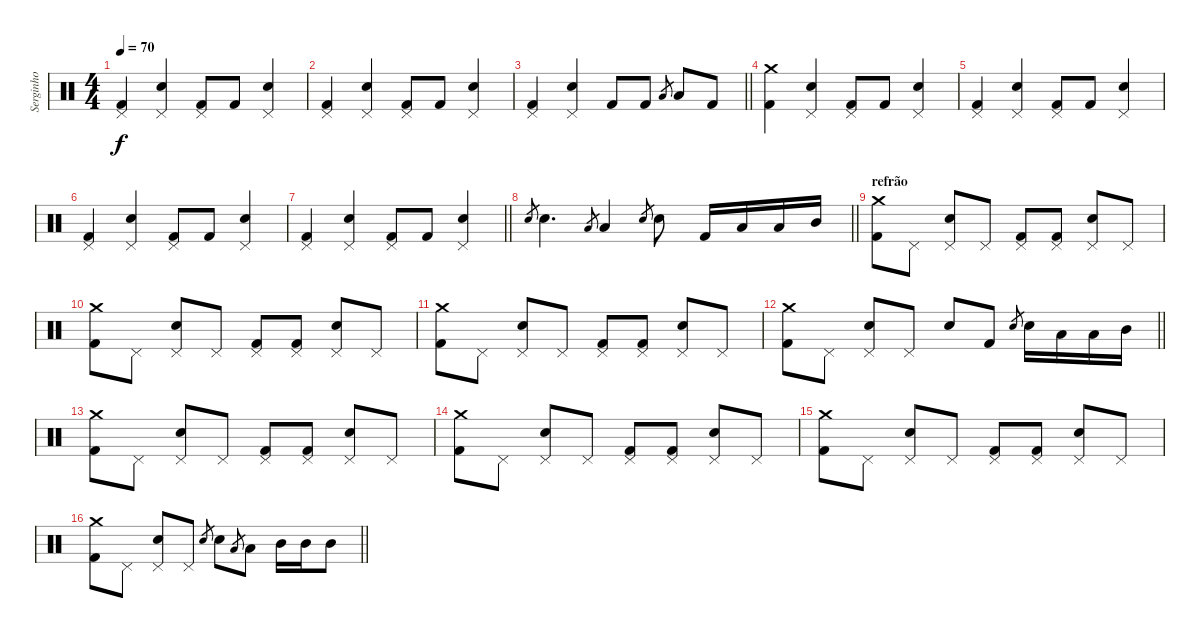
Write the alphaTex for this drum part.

\track ("Serginho" "Serginho") {instrument percussion}
\staff {score}
\articulation defaults
\ts (4 4)
\tempo 70
\clef neutral
\ks c
("Pedal Hi-Hat (hit)" "Kick (hit) 2").4{dy f} ("Pedal Hi-Hat (hit)" "Snare (hit) 2").4 ("Pedal Hi-Hat (hit)" "Kick (hit) 2").8 "Kick (hit) 2".8 ("Pedal Hi-Hat (hit)" "Snare (hit) 2").4 |
("Pedal Hi-Hat (hit)" "Kick (hit) 2").4 ("Pedal Hi-Hat (hit)" "Snare (hit) 2").4 ("Pedal Hi-Hat (hit)" "Kick (hit) 2").8 "Kick (hit) 2".8 ("Pedal Hi-Hat (hit)" "Snare (hit) 2").4 |
\barLineRight lightlight
("Pedal Hi-Hat (hit)" "Kick (hit) 2").4 ("Pedal Hi-Hat (hit)" "Snare (hit) 2").4 "Kick (hit) 2".8 "Kick (hit) 2".8 "Low Tom (hit)".8{gr} "Low Tom (hit)".8 "Kick (hit) 2".8 |
("Crash medium (hit)" "Kick (hit) 2").4 ("Pedal Hi-Hat (hit)" "Snare (hit) 2").4 ("Pedal Hi-Hat (hit)" "Kick (hit) 2").8 "Kick (hit) 2".8 ("Pedal Hi-Hat (hit)" "Snare (hit) 2").4 |
("Pedal Hi-Hat (hit)" "Kick (hit) 2").4 ("Pedal Hi-Hat (hit)" "Snare (hit) 2").4 ("Pedal Hi-Hat (hit)" "Kick (hit) 2").8 "Kick (hit) 2".8 ("Pedal Hi-Hat (hit)" "Snare (hit) 2").4 |
("Pedal Hi-Hat (hit)" "Kick (hit) 2").4 ("Pedal Hi-Hat (hit)" "Snare (hit) 2").4 ("Pedal Hi-Hat (hit)" "Kick (hit) 2").8 "Kick (hit) 2".8 ("Pedal Hi-Hat (hit)" "Snare (hit) 2").4 |
\barLineRight lightlight
("Pedal Hi-Hat (hit)" "Kick (hit) 2").4 ("Pedal Hi-Hat (hit)" "Snare (hit) 2").4 ("Pedal Hi-Hat (hit)" "Kick (hit) 2").8 "Kick (hit) 2".8 ("Pedal Hi-Hat (hit)" "Snare (hit) 2").4 |
\barLineRight lightlight "Snare (hit) 2".8{gr} "Snare (hit) 2".4{d} "Low Tom (hit)".8{gr} "Low Tom (hit)".4 "Snare (hit) 2".8{gr} "Snare (hit) 2".8 "Kick (hit) 2".16 "Low Tom (hit)".16 "Low Tom (hit)".16 "Mid Tom (hit)".16
|
\section ("" "refrão")
("Crash medium (hit)" "Kick (hit) 2").8 "Pedal Hi-Hat (hit)".8 ("Pedal Hi-Hat (hit)" "Snare (hit) 2").8 "Pedal Hi-Hat (hit)".8 ("Pedal Hi-Hat (hit)" "Kick (hit) 2").8 ("Pedal Hi-Hat (hit)" "Kick (hit) 2").8 ("Pedal Hi-Hat (hit)" "Snare (hit) 2").8 "Pedal Hi-Hat (hit)".8 |
("Crash medium (hit)" "Kick (hit) 2").8 "Pedal Hi-Hat (hit)".8 ("Pedal Hi-Hat (hit)" "Snare (hit) 2").8 "Pedal Hi-Hat (hit)".8 ("Pedal Hi-Hat (hit)" "Kick (hit) 2").8 ("Pedal Hi-Hat (hit)" "Kick (hit) 2").8 ("Pedal Hi-Hat (hit)" "Snare (hit) 2").8 "Pedal Hi-Hat (hit)".8 |
("Crash medium (hit)" "Kick (hit) 2").8 "Pedal Hi-Hat (hit)".8 ("Pedal Hi-Hat (hit)" "Snare (hit) 2").8 "Pedal Hi-Hat (hit)".8 ("Pedal Hi-Hat (hit)" "Kick (hit) 2").8 ("Pedal Hi-Hat (hit)" "Kick (hit) 2").8 ("Pedal Hi-Hat (hit)" "Snare (hit) 2").8 "Pedal Hi-Hat (hit)".8 |
\barLineRight lightlight
("Crash medium (hit)" "Kick (hit) 2").8 "Pedal Hi-Hat (hit)".8 ("Pedal Hi-Hat (hit)" "Snare (hit) 2").8 "Pedal Hi-Hat (hit)".8 "Snare (hit) 2".8 "Kick (hit) 2".8 "Snare (hit) 2".8{gr} "Snare (hit) 2".16 "Low Tom (hit)".16 "Low Tom (hit)".16 "Mid Tom (hit)".16 |
("Crash medium (hit)" "Kick (hit) 2").8 "Pedal Hi-Hat (hit)".8 ("Pedal Hi-Hat (hit)" "Snare (hit) 2").8 "Pedal Hi-Hat (hit)".8 ("Pedal Hi-Hat (hit)" "Kick (hit) 2").8 ("Pedal Hi-Hat (hit)" "Kick (hit) 2").8 ("Pedal Hi-Hat (hit)" "Snare (hit) 2").8 "Pedal Hi-Hat (hit)".8 |
("Crash medium (hit)" "Kick (hit) 2").8 "Pedal Hi-Hat (hit)".8 ("Pedal Hi-Hat (hit)" "Snare (hit) 2").8 "Pedal Hi-Hat (hit)".8 ("Pedal Hi-Hat (hit)" "Kick (hit) 2").8 ("Pedal Hi-Hat (hit)" "Kick (hit) 2").8 ("Pedal Hi-Hat (hit)" "Snare (hit) 2").8 "Pedal Hi-Hat (hit)".8 |
("Crash medium (hit)" "Kick (hit) 2").8 "Pedal Hi-Hat (hit)".8 ("Pedal Hi-Hat (hit)" "Snare (hit) 2").8 "Pedal Hi-Hat (hit)".8 ("Pedal Hi-Hat (hit)" "Kick (hit) 2").8 ("Pedal Hi-Hat (hit)" "Kick (hit) 2").8 ("Pedal Hi-Hat (hit)" "Snare (hit) 2").8 "Pedal Hi-Hat (hit)".8 |
\barLineRight lightlight
("Crash medium (hit)" "Kick (hit) 2").8 "Pedal Hi-Hat (hit)".8 ("Pedal Hi-Hat (hit)" "Snare (hit) 2").8 "Pedal Hi-Hat (hit)".8 "Snare (hit) 2".8{gr} "Snare (hit) 2".8 "Low Tom (hit)".8{gr} "Low Tom (hit)".8 "Mid Tom (hit)".16 "Mid Tom (hit)".16 "Mid Tom (hit)".8
